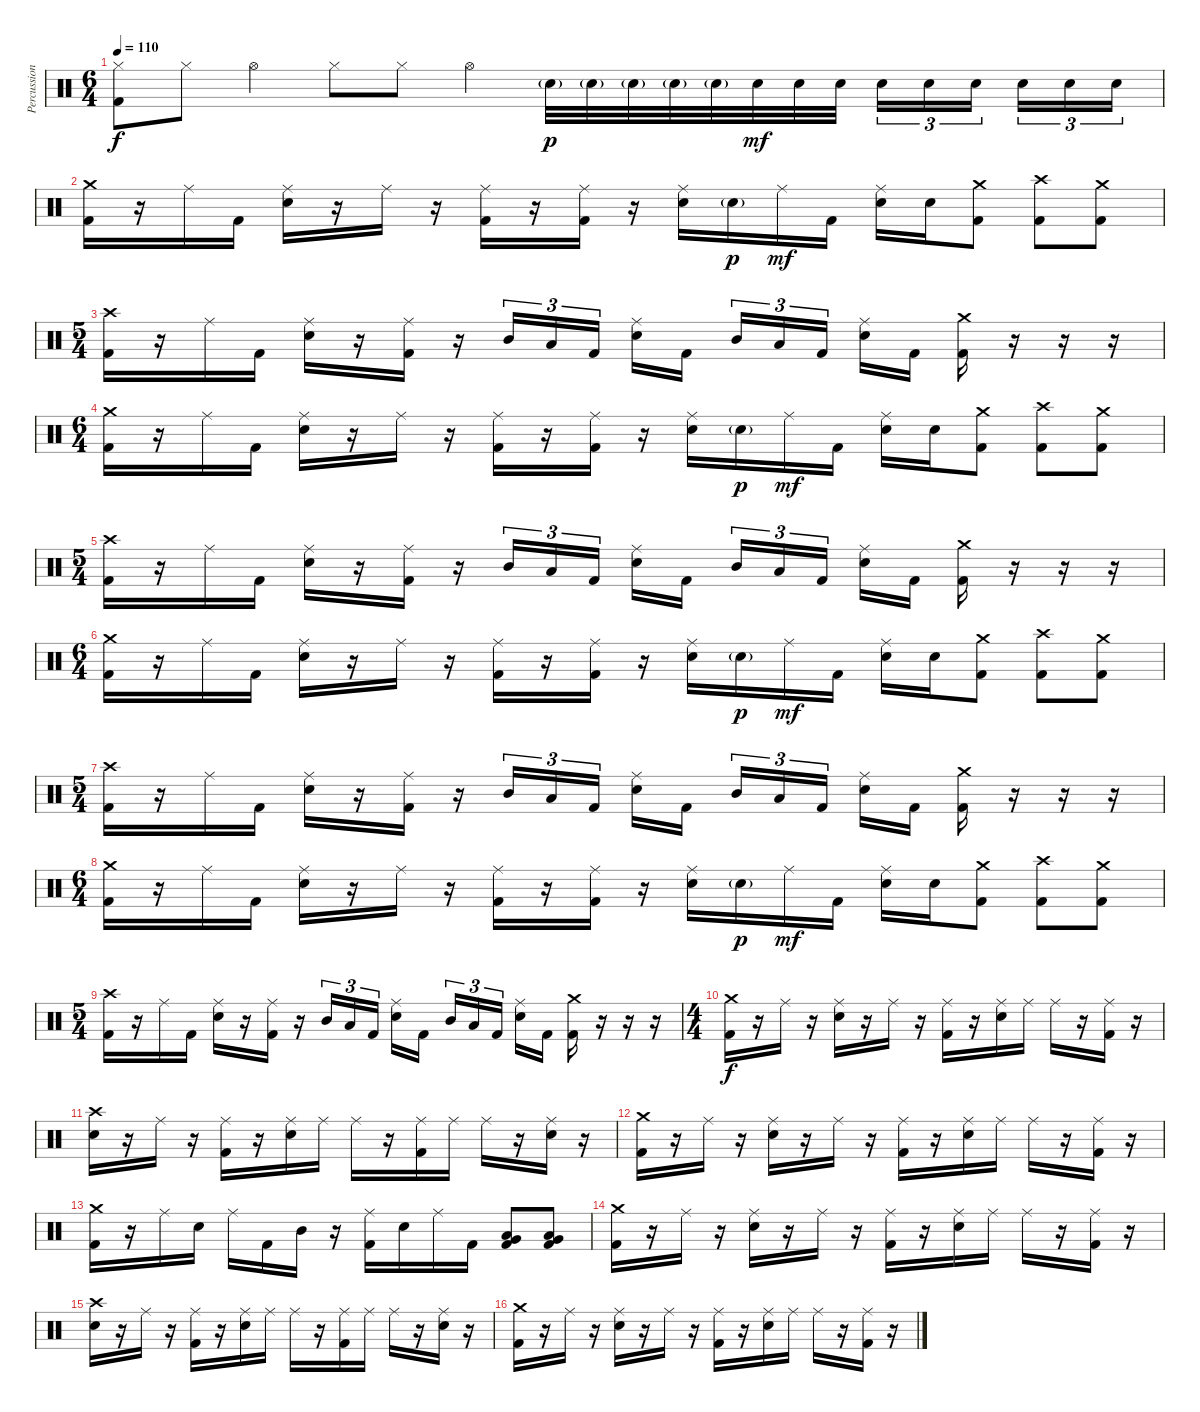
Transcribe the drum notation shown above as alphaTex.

\track ("Percussion" "Percussion") {instrument percussion}
\staff {score}
\articulation defaults
\ts (6 4)
\tempo 110
\clef neutral
\ks c
("Hi-Hat (closed)" "Kick (hit) 2").8{dy f} "Hi-Hat (closed)".8 "Hi-Hat (open)".4 "Hi-Hat (closed)".8 "Hi-Hat (closed)".8 "Hi-Hat (open)".4 "Electric Snare (hit)"{g}.32{dy p} "Electric Snare (hit)"{g}.32 "Electric Snare (hit)"{g}.32 "Electric Snare (hit)"{g}.32 "Electric Snare (hit)"{g}.32 "Electric Snare (hit)".32{dy mf} "Electric Snare (hit)".32 "Electric Snare (hit)".32{beam splitsecondary} "Electric Snare (hit)".16{tu (3 2)} "Electric Snare (hit)".16{tu (3 2)} "Electric Snare (hit)".16{tu (3 2) beam splitsecondary} "Electric Snare (hit)".16{tu (3 2)} "Electric Snare (hit)".16{tu (3 2)} "Electric Snare (hit)".16{tu (3 2)} |
("Crash medium (hit)" "Kick (hit) 2").16 r.16 "Ride (middle)".16 "Kick (hit) 2".16 ("Ride (middle)" "Electric Snare (hit)").16 r.16 "Ride (middle)".16 r.16 ("Ride (middle)" "Kick (hit) 2").16 r.16 ("Ride (middle)" "Kick (hit) 2").16 r.16 ("Ride (middle)" "Electric Snare (hit)").16 "Electric Snare (hit)"{g}.16{dy p} "Ride (middle)".16{dy mf} "Kick (hit) 2".16 ("Ride (middle)" "Electric Snare (hit)").16 "Electric Snare (hit)".16 ("Crash medium (hit)" "Kick (hit) 2").8 ("Crash high (hit)" "Kick (hit) 2").8 ("Crash medium (hit)" "Kick (hit) 2").8 |
\ts (5 4)
("Crash high (hit)" "Kick (hit) 2").16 r.16 "Ride (middle)".16 "Kick (hit) 2".16 ("Ride (middle)" "Electric Snare (hit)").16 r.16 ("Ride (middle)" "Kick (hit) 2").16 r.16 "Mid Tom (hit)".16{tu (3 2)} "Low Tom (hit)".16{tu (3 2)} "Kick (hit) 2".16{tu (3 2) beam splitsecondary} ("Ride (middle)" "Electric Snare (hit)").16 "Kick (hit) 2".16 "Mid Tom (hit)".16{tu (3 2)} "Low Tom (hit)".16{tu (3 2)} "Kick (hit) 2".16{tu (3 2) beam splitsecondary} ("Ride (middle)" "Electric Snare (hit)").16 "Kick (hit) 2".16 ("Crash medium (hit)" "Kick (hit) 2").16 r.16 r.16 r.16 |
\ts (6 4)
("Crash medium (hit)" "Kick (hit) 2").16 r.16 "Ride (middle)".16 "Kick (hit) 2".16 ("Ride (middle)" "Electric Snare (hit)").16 r.16 "Ride (middle)".16 r.16 ("Ride (middle)" "Kick (hit) 2").16 r.16 ("Ride (middle)" "Kick (hit) 2").16 r.16 ("Ride (middle)" "Electric Snare (hit)").16 "Electric Snare (hit)"{g}.16{dy p} "Ride (middle)".16{dy mf} "Kick (hit) 2".16 ("Ride (middle)" "Electric Snare (hit)").16 "Electric Snare (hit)".16 ("Crash medium (hit)" "Kick (hit) 2").8 ("Crash high (hit)" "Kick (hit) 2").8 ("Crash medium (hit)" "Kick (hit) 2").8 |
\ts (5 4)
("Crash high (hit)" "Kick (hit) 2").16 r.16 "Ride (middle)".16 "Kick (hit) 2".16 ("Ride (middle)" "Electric Snare (hit)").16 r.16 ("Ride (middle)" "Kick (hit) 2").16 r.16 "Mid Tom (hit)".16{tu (3 2)} "Low Tom (hit)".16{tu (3 2)} "Kick (hit) 2".16{tu (3 2) beam splitsecondary} ("Ride (middle)" "Electric Snare (hit)").16 "Kick (hit) 2".16 "Mid Tom (hit)".16{tu (3 2)} "Low Tom (hit)".16{tu (3 2)} "Kick (hit) 2".16{tu (3 2) beam splitsecondary} ("Ride (middle)" "Electric Snare (hit)").16 "Kick (hit) 2".16 ("Crash medium (hit)" "Kick (hit) 2").16 r.16 r.16 r.16 |
\ts (6 4)
("Crash medium (hit)" "Kick (hit) 2").16 r.16 "Ride (middle)".16 "Kick (hit) 2".16 ("Ride (middle)" "Electric Snare (hit)").16 r.16 "Ride (middle)".16 r.16 ("Ride (middle)" "Kick (hit) 2").16 r.16 ("Ride (middle)" "Kick (hit) 2").16 r.16 ("Ride (middle)" "Electric Snare (hit)").16 "Electric Snare (hit)"{g}.16{dy p} "Ride (middle)".16{dy mf} "Kick (hit) 2".16 ("Ride (middle)" "Electric Snare (hit)").16 "Electric Snare (hit)".16 ("Crash medium (hit)" "Kick (hit) 2").8 ("Crash high (hit)" "Kick (hit) 2").8 ("Crash medium (hit)" "Kick (hit) 2").8 |
\ts (5 4)
("Crash high (hit)" "Kick (hit) 2").16 r.16 "Ride (middle)".16 "Kick (hit) 2".16 ("Ride (middle)" "Electric Snare (hit)").16 r.16 ("Ride (middle)" "Kick (hit) 2").16 r.16 "Mid Tom (hit)".16{tu (3 2)} "Low Tom (hit)".16{tu (3 2)} "Kick (hit) 2".16{tu (3 2) beam splitsecondary} ("Ride (middle)" "Electric Snare (hit)").16 "Kick (hit) 2".16 "Mid Tom (hit)".16{tu (3 2)} "Low Tom (hit)".16{tu (3 2)} "Kick (hit) 2".16{tu (3 2) beam splitsecondary} ("Ride (middle)" "Electric Snare (hit)").16 "Kick (hit) 2".16 ("Crash medium (hit)" "Kick (hit) 2").16 r.16 r.16 r.16 |
\ts (6 4)
("Crash medium (hit)" "Kick (hit) 2").16 r.16 "Ride (middle)".16 "Kick (hit) 2".16 ("Ride (middle)" "Electric Snare (hit)").16 r.16 "Ride (middle)".16 r.16 ("Ride (middle)" "Kick (hit) 2").16 r.16 ("Ride (middle)" "Kick (hit) 2").16 r.16 ("Ride (middle)" "Electric Snare (hit)").16 "Electric Snare (hit)"{g}.16{dy p} "Ride (middle)".16{dy mf} "Kick (hit) 2".16 ("Ride (middle)" "Electric Snare (hit)").16 "Electric Snare (hit)".16 ("Crash medium (hit)" "Kick (hit) 2").8 ("Crash high (hit)" "Kick (hit) 2").8 ("Crash medium (hit)" "Kick (hit) 2").8 |
\ts (5 4)
("Crash high (hit)" "Kick (hit) 2").16 r.16 "Ride (middle)".16 "Kick (hit) 2".16 ("Ride (middle)" "Electric Snare (hit)").16 r.16 ("Ride (middle)" "Kick (hit) 2").16 r.16 "Mid Tom (hit)".16{tu (3 2)} "Low Tom (hit)".16{tu (3 2)} "Kick (hit) 2".16{tu (3 2) beam splitsecondary} ("Ride (middle)" "Electric Snare (hit)").16 "Kick (hit) 2".16 "Mid Tom (hit)".16{tu (3 2)} "Low Tom (hit)".16{tu (3 2)} "Kick (hit) 2".16{tu (3 2) beam splitsecondary} ("Ride (middle)" "Electric Snare (hit)").16 "Kick (hit) 2".16 ("Crash medium (hit)" "Kick (hit) 2").16 r.16 r.16 r.16 |
\ts (4 4)
("Crash medium (hit)" "Kick (hit) 2").16{dy f} r.16 "Ride (middle)".16 r.16 ("Ride (middle)" "Electric Snare (hit)").16 r.16 "Ride (middle)".16 r.16 ("Ride (middle)" "Kick (hit) 2").16 r.16 ("Ride (middle)" "Electric Snare (hit)").16 "Ride (middle)".16 "Ride (middle)".16 r.16 ("Ride (middle)" "Kick (hit) 2").16 r.16 |
("Crash high (hit)" "Electric Snare (hit)").16 r.16 "Ride (middle)".16 r.16 ("Ride (middle)" "Kick (hit) 2").16 r.16 ("Ride (middle)" "Electric Snare (hit)").16 "Ride (middle)".16 "Ride (middle)".16 r.16 ("Ride (middle)" "Kick (hit) 2").16 "Ride (middle)".16 "Ride (middle)".16 r.16 ("Ride (middle)" "Electric Snare (hit)").16 r.16 |
("Crash medium (hit)" "Kick (hit) 2").16 r.16 "Ride (middle)".16 r.16 ("Ride (middle)" "Electric Snare (hit)").16 r.16 "Ride (middle)".16 r.16 ("Ride (middle)" "Kick (hit) 2").16 r.16 ("Ride (middle)" "Electric Snare (hit)").16 "Ride (middle)".16 "Ride (middle)".16 r.16 ("Ride (middle)" "Kick (hit) 2").16 r.16 |
("Crash medium (hit)" "Kick (hit) 2").16 r.16 "Ride (middle)".16 "Electric Snare (hit)".16 "Ride (middle)".16 "Kick (hit) 2".16 "Mid Tom (hit)".16 r.16 ("Ride (middle)" "Kick (hit) 2").16 "Electric Snare (hit)".16 "Ride (middle)".16 "Kick (hit) 2".16 ("Kick (hit) 2" "Very Low Tom (hit)" "Low Tom (hit)").8 ("Kick (hit) 2" "Very Low Tom (hit)" "Low Floor Tom (hit)").8 |
("Crash medium (hit)" "Kick (hit) 2").16 r.16 "Ride (middle)".16 r.16 ("Ride (middle)" "Electric Snare (hit)").16 r.16 "Ride (middle)".16 r.16 ("Ride (middle)" "Kick (hit) 2").16 r.16 ("Ride (middle)" "Electric Snare (hit)").16 "Ride (middle)".16 "Ride (middle)".16 r.16 ("Ride (middle)" "Kick (hit) 2").16 r.16 |
("Crash high (hit)" "Electric Snare (hit)").16 r.16 "Ride (middle)".16 r.16 ("Ride (middle)" "Kick (hit) 2").16 r.16 ("Ride (middle)" "Electric Snare (hit)").16 "Ride (middle)".16 "Ride (middle)".16 r.16 ("Ride (middle)" "Kick (hit) 2").16 "Ride (middle)".16 "Ride (middle)".16 r.16 ("Ride (middle)" "Electric Snare (hit)").16 r.16 |
("Crash medium (hit)" "Kick (hit) 2").16 r.16 "Ride (middle)".16 r.16 ("Ride (middle)" "Electric Snare (hit)").16 r.16 "Ride (middle)".16 r.16 ("Ride (middle)" "Kick (hit) 2").16 r.16 ("Ride (middle)" "Electric Snare (hit)").16 "Ride (middle)".16 "Ride (middle)".16 r.16 ("Ride (middle)" "Kick (hit) 2").16 r.16
